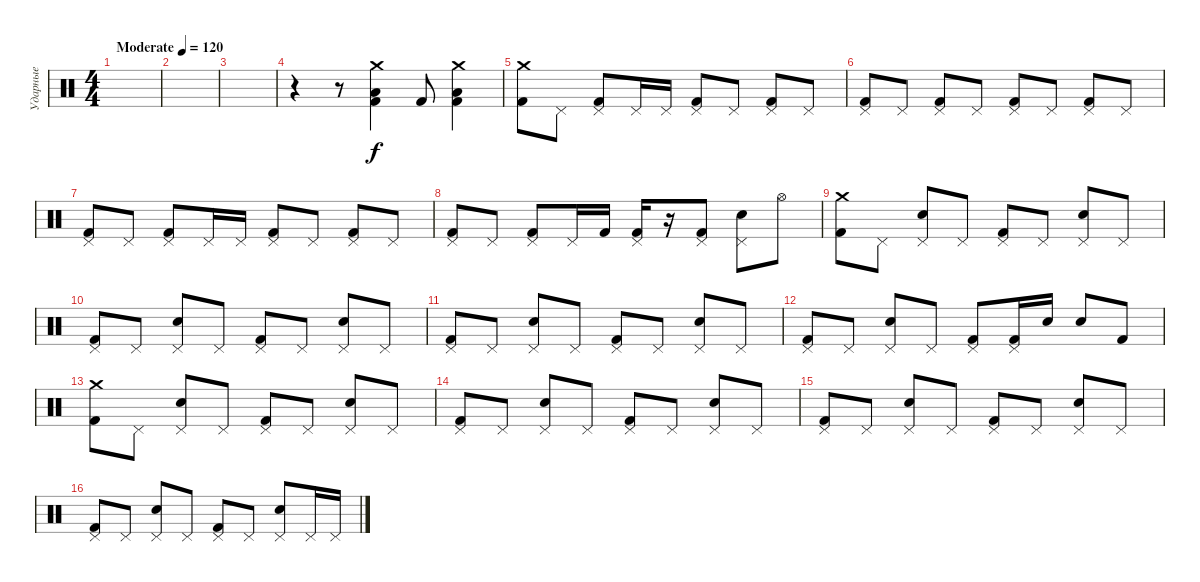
\track ("Ударные" "Ударные") {instrument percussion}
\staff {score}
\articulation defaults
\ts (4 4)
\tempo (120 "Moderate")
\clef neutral
\ks c
|
|
|
r.4 r.8 ("Crash medium (hit)" "Low Floor Tom (hit)" "Kick (hit) 2").4 "Kick (hit) 2".8 ("Crash medium (hit)" "Low Floor Tom (hit)" "Kick (hit) 2").4 |
("Crash medium (hit)" "Kick (hit) 2").8 "Pedal Hi-Hat (hit)".8 ("Pedal Hi-Hat (hit)" "Kick (hit) 2").8 "Pedal Hi-Hat (hit)".16 "Pedal Hi-Hat (hit)".16 ("Pedal Hi-Hat (hit)" "Kick (hit) 2").8 "Pedal Hi-Hat (hit)".8 ("Pedal Hi-Hat (hit)" "Kick (hit) 2").8 "Pedal Hi-Hat (hit)".8 |
("Pedal Hi-Hat (hit)" "Kick (hit) 2").8 "Pedal Hi-Hat (hit)".8 ("Pedal Hi-Hat (hit)" "Kick (hit) 2").8 "Pedal Hi-Hat (hit)".8 ("Pedal Hi-Hat (hit)" "Kick (hit) 2").8 "Pedal Hi-Hat (hit)".8 ("Pedal Hi-Hat (hit)" "Kick (hit) 2").8 "Pedal Hi-Hat (hit)".8 |
("Pedal Hi-Hat (hit)" "Kick (hit) 2").8 "Pedal Hi-Hat (hit)".8 ("Pedal Hi-Hat (hit)" "Kick (hit) 2").8 "Pedal Hi-Hat (hit)".16 "Pedal Hi-Hat (hit)".16 ("Pedal Hi-Hat (hit)" "Kick (hit) 2").8 "Pedal Hi-Hat (hit)".8 ("Pedal Hi-Hat (hit)" "Kick (hit) 2").8 "Pedal Hi-Hat (hit)".8 |
("Pedal Hi-Hat (hit)" "Kick (hit) 2").8 "Pedal Hi-Hat (hit)".8 ("Pedal Hi-Hat (hit)" "Kick (hit) 2").8 "Pedal Hi-Hat (hit)".16 "Kick (hit) 2".16 ("Pedal Hi-Hat (hit)" "Kick (hit) 2").16 r.16 ("Pedal Hi-Hat (hit)" "Kick (hit) 2").8 ("Pedal Hi-Hat (hit)" "Snare (hit) 2").8 "Hi-Hat (open)".8 |
("Crash medium (hit)" "Kick (hit) 2").8 "Pedal Hi-Hat (hit)".8 ("Pedal Hi-Hat (hit)" "Snare (hit) 2").8 "Pedal Hi-Hat (hit)".8 ("Pedal Hi-Hat (hit)" "Kick (hit) 2").8 "Pedal Hi-Hat (hit)".8 ("Pedal Hi-Hat (hit)" "Snare (hit) 2").8 "Pedal Hi-Hat (hit)".8 |
("Pedal Hi-Hat (hit)" "Kick (hit) 2").8 "Pedal Hi-Hat (hit)".8 ("Pedal Hi-Hat (hit)" "Snare (hit) 2").8 "Pedal Hi-Hat (hit)".8 ("Pedal Hi-Hat (hit)" "Kick (hit) 2").8 "Pedal Hi-Hat (hit)".8 ("Pedal Hi-Hat (hit)" "Snare (hit) 2").8 "Pedal Hi-Hat (hit)".8 |
("Pedal Hi-Hat (hit)" "Kick (hit) 2").8 "Pedal Hi-Hat (hit)".8 ("Pedal Hi-Hat (hit)" "Snare (hit) 2").8 "Pedal Hi-Hat (hit)".8 ("Pedal Hi-Hat (hit)" "Kick (hit) 2").8 "Pedal Hi-Hat (hit)".8 ("Pedal Hi-Hat (hit)" "Snare (hit) 2").8 "Pedal Hi-Hat (hit)".8 |
("Pedal Hi-Hat (hit)" "Kick (hit) 2").8 "Pedal Hi-Hat (hit)".8 ("Pedal Hi-Hat (hit)" "Snare (hit) 2").8 "Pedal Hi-Hat (hit)".8 ("Pedal Hi-Hat (hit)" "Kick (hit) 2").8 ("Pedal Hi-Hat (hit)" "Kick (hit) 2").16 "Snare (hit) 2".16 "Snare (hit) 2".8 "Kick (hit) 2".8 |
("Crash medium (hit)" "Kick (hit) 2").8 "Pedal Hi-Hat (hit)".8 ("Pedal Hi-Hat (hit)" "Snare (hit) 2").8 "Pedal Hi-Hat (hit)".8 ("Pedal Hi-Hat (hit)" "Kick (hit) 2").8 "Pedal Hi-Hat (hit)".8 ("Pedal Hi-Hat (hit)" "Snare (hit) 2").8 "Pedal Hi-Hat (hit)".8 |
("Pedal Hi-Hat (hit)" "Kick (hit) 2").8 "Pedal Hi-Hat (hit)".8 ("Pedal Hi-Hat (hit)" "Snare (hit) 2").8 "Pedal Hi-Hat (hit)".8 ("Pedal Hi-Hat (hit)" "Kick (hit) 2").8 "Pedal Hi-Hat (hit)".8 ("Pedal Hi-Hat (hit)" "Snare (hit) 2").8 "Pedal Hi-Hat (hit)".8 |
("Pedal Hi-Hat (hit)" "Kick (hit) 2").8 "Pedal Hi-Hat (hit)".8 ("Pedal Hi-Hat (hit)" "Snare (hit) 2").8 "Pedal Hi-Hat (hit)".8 ("Pedal Hi-Hat (hit)" "Kick (hit) 2").8 "Pedal Hi-Hat (hit)".8 ("Pedal Hi-Hat (hit)" "Snare (hit) 2").8 "Pedal Hi-Hat (hit)".8 |
("Pedal Hi-Hat (hit)" "Kick (hit) 2").8 "Pedal Hi-Hat (hit)".8 ("Pedal Hi-Hat (hit)" "Snare (hit) 2").8 "Pedal Hi-Hat (hit)".8 ("Pedal Hi-Hat (hit)" "Kick (hit) 2").8 "Pedal Hi-Hat (hit)".8 ("Pedal Hi-Hat (hit)" "Snare (hit) 2").8 "Pedal Hi-Hat (hit)".16 "Pedal Hi-Hat (hit)".16
